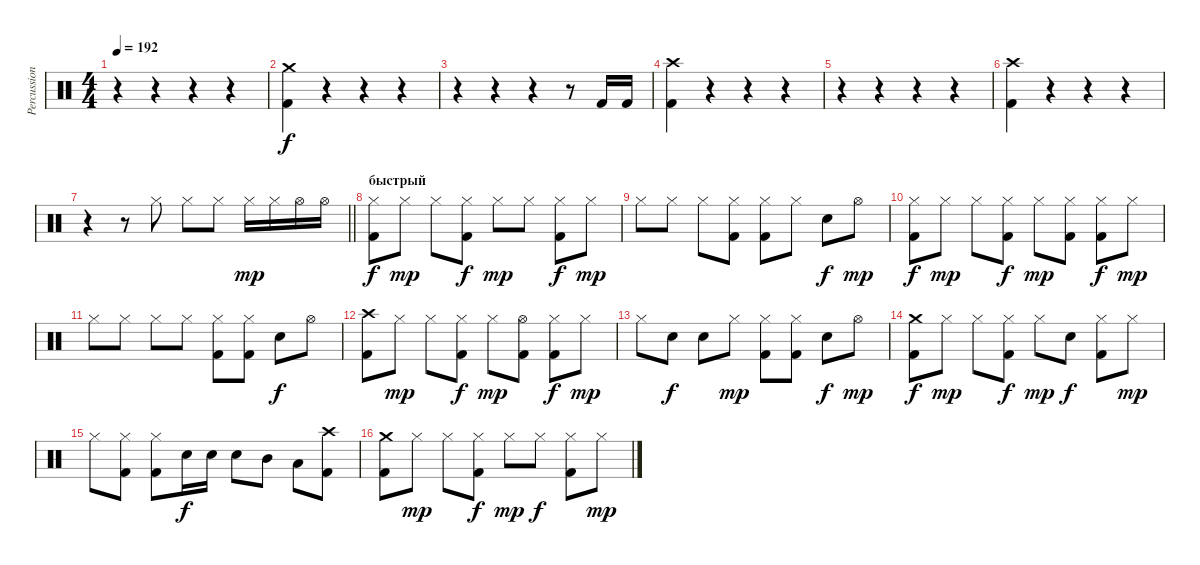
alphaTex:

\track ("Percussion" "Percussion") {instrument percussion}
\staff {score}
\articulation defaults
\ts (4 4)
\tempo 192
\clef neutral
\ks c
r.4{dy f} r.4 r.4 r.4 |
("Crash medium (hit)" "Kick (hit) 2").4 r.4 r.4 r.4 |
r.4 r.4 r.4 r.8 "Kick (hit) 2".16 "Kick (hit) 2".16 |
("Crash high (hit)" "Kick (hit) 2").4 r.4 r.4 r.4 |
r.4 r.4 r.4 r.4 |
("Crash high (hit)" "Kick (hit) 2").4 r.4 r.4 r.4 |
\barLineRight lightlight
r.4 r.8 "Hi-Hat (closed)".8 "Hi-Hat (closed)".8 "Hi-Hat (closed)".8 "Hi-Hat (closed)".16{dy mp} "Hi-Hat (closed)".16 "Hi-Hat (open)".16 "Hi-Hat (open)".16 |
\section ("" "быстрый")
("Hi-Hat (closed)" "Kick (hit) 2").8{dy f} "Hi-Hat (closed)".8{dy mp} "Hi-Hat (closed)".8 ("Hi-Hat (closed)" "Kick (hit) 2").8{dy f} "Hi-Hat (closed)".8{dy mp} "Hi-Hat (closed)".8 ("Hi-Hat (closed)" "Kick (hit) 2").8{dy f} "Hi-Hat (closed)".8{dy mp} |
"Hi-Hat (closed)".8 "Hi-Hat (closed)".8 "Hi-Hat (closed)".8 ("Hi-Hat (closed)" "Kick (hit) 2").8 ("Hi-Hat (closed)" "Kick (hit) 2").8 "Hi-Hat (closed)".8 "Electric Snare (hit)".8{dy f} "Hi-Hat (open)".8{dy mp} |
("Hi-Hat (closed)" "Kick (hit) 2").8{dy f} "Hi-Hat (closed)".8{dy mp} "Hi-Hat (closed)".8 ("Hi-Hat (closed)" "Kick (hit) 2").8{dy f} "Hi-Hat (closed)".8{dy mp} ("Hi-Hat (closed)" "Kick (hit) 2").8 ("Hi-Hat (closed)" "Kick (hit) 2").8{dy f} "Hi-Hat (closed)".8{dy mp} |
"Hi-Hat (closed)".8 "Hi-Hat (closed)".8 "Hi-Hat (closed)".8 "Hi-Hat (closed)".8 ("Hi-Hat (closed)" "Kick (hit) 2").8 ("Hi-Hat (closed)" "Kick (hit) 2").8 "Electric Snare (hit)".8{dy f} "Hi-Hat (open)".8 |
("Crash high (hit)" "Kick (hit) 2").8 "Hi-Hat (closed)".8{dy mp} "Hi-Hat (closed)".8 ("Hi-Hat (closed)" "Kick (hit) 2").8{dy f} "Hi-Hat (closed)".8{dy mp} ("Hi-Hat (open)" "Kick (hit) 2").8 ("Hi-Hat (closed)" "Kick (hit) 2").8{dy f} "Hi-Hat (closed)".8{dy mp} |
"Hi-Hat (closed)".8 "Electric Snare (hit)".8{dy f} "Electric Snare (hit)".8 "Hi-Hat (closed)".8{dy mp} ("Hi-Hat (closed)" "Kick (hit) 2").8 ("Hi-Hat (closed)" "Kick (hit) 2").8 "Electric Snare (hit)".8{dy f} "Hi-Hat (open)".8{dy mp} |
("Crash medium (hit)" "Kick (hit) 2").8{dy f} "Hi-Hat (closed)".8{dy mp} "Hi-Hat (closed)".8 ("Hi-Hat (closed)" "Kick (hit) 2").8{dy f} "Hi-Hat (closed)".8{dy mp} "Electric Snare (hit)".8{dy f} ("Hi-Hat (closed)" "Kick (hit) 2").8 "Hi-Hat (closed)".8{dy mp} |
"Hi-Hat (closed)".8 ("Hi-Hat (closed)" "Kick (hit) 2").8 ("Hi-Hat (closed)" "Kick (hit) 2").8 "Electric Snare (hit)".16{dy f} "Electric Snare (hit)".16 "Electric Snare (hit)".8 "Mid Tom (hit)".8 "Low Tom (hit)".8 ("Crash high (hit)" "Kick (hit) 2").8 |
("Crash medium (hit)" "Kick (hit) 2").8 "Hi-Hat (closed)".8{dy mp} "Hi-Hat (closed)".8 ("Hi-Hat (closed)" "Kick (hit) 2").8{dy f} "Hi-Hat (closed)".8{dy mp} "Hi-Hat (closed)".8{dy f} ("Hi-Hat (closed)" "Kick (hit) 2").8 "Hi-Hat (closed)".8{dy mp}
